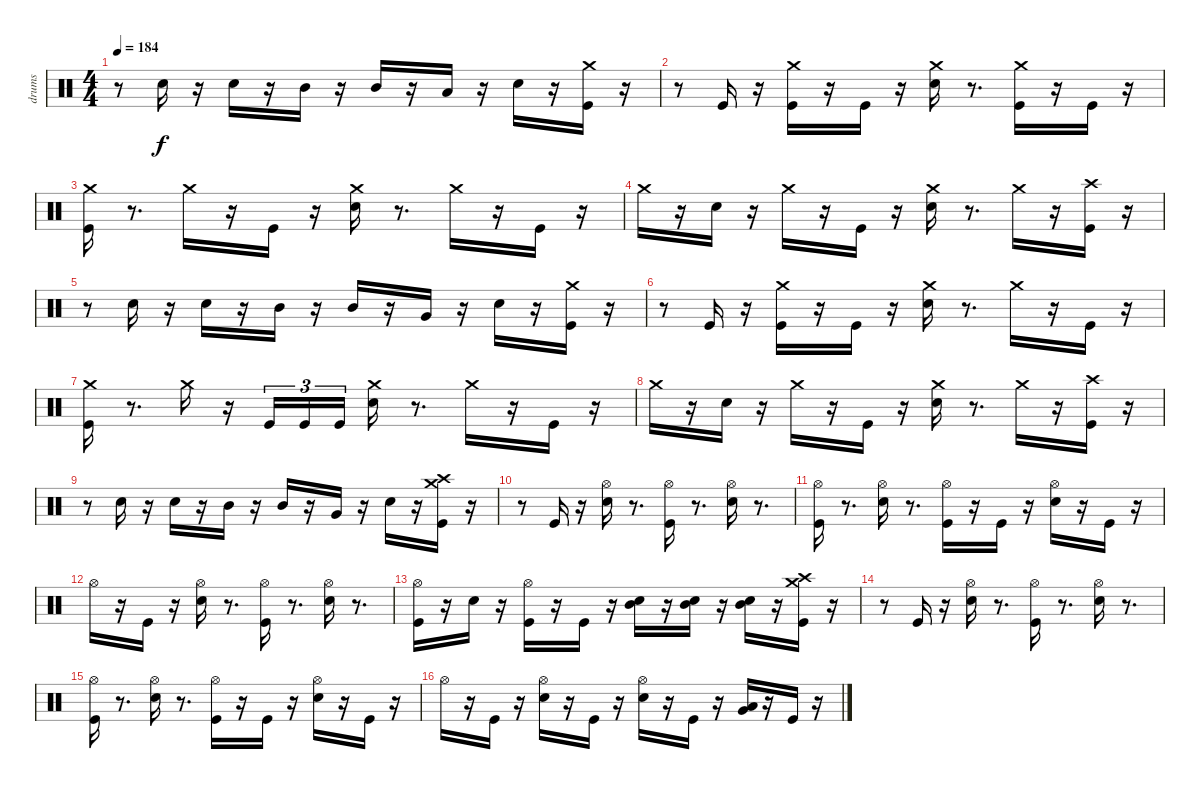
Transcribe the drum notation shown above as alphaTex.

\track ("drums" "drums") {instrument percussion}
\staff {score}
\articulation defaults
\ts (4 4)
\tempo 184
\clef neutral
\ks c
r.8{dy f} "Snare (hit) 2".16 r.16 "Snare (hit) 2".16 r.16 "Mid Tom (hit)".16 r.16 "Mid Tom (hit)".16 r.16 "Low Tom (hit)".16 r.16 "Snare (hit) 2".16 r.16 ("Kick (hit)" "Crash medium (hit)").16 r.16 |
r.8 "Kick (hit)".16 r.16 ("Kick (hit)" "Crash medium (hit)").16 r.16 "Kick (hit)".16 r.16 ("Snare (hit) 2" "Crash medium (hit)").16 r.8{d} ("Kick (hit)" "Crash medium (hit)").16 r.16 "Kick (hit)".16 r.16 |
("Kick (hit)" "Crash medium (hit)").16 r.8{d} "Crash medium (hit)".16 r.16 "Kick (hit)".16 r.16 ("Snare (hit) 2" "Crash medium (hit)").16 r.8{d} "Crash medium (hit)".16 r.16 "Kick (hit)".16 r.16 |
"Crash medium (hit)".16 r.16 "Snare (hit) 2".16 r.16 "Crash medium (hit)".16 r.16 "Kick (hit)".16 r.16 ("Snare (hit) 2" "Crash medium (hit)").16 r.8{d} "Crash medium (hit)".16 r.16 ("Kick (hit)" "Crash high (hit)").16 r.16 |
r.8 "Snare (hit) 2".16 r.16 "Snare (hit) 2".16 r.16 "Mid Tom (hit)".16 r.16 "Mid Tom (hit)".16 r.16 "Very Low Tom (hit)".16 r.16 "Snare (hit) 2".16 r.16 ("Kick (hit)" "Crash medium (hit)").16 r.16 |
r.8 "Kick (hit)".16 r.16 ("Kick (hit)" "Crash medium (hit)").16 r.16 "Kick (hit)".16 r.16 ("Snare (hit) 2" "Crash medium (hit)").16 r.8{d} "Crash medium (hit)".16 r.16 "Kick (hit)".16 r.16 |
("Kick (hit)" "Crash medium (hit)").16 r.8{d} "Crash medium (hit)".16 r.16 "Kick (hit)".16{tu (3 2)} "Kick (hit)".16{tu (3 2)} "Kick (hit)".16{tu (3 2)} ("Snare (hit) 2" "Crash medium (hit)").16 r.8{d} "Crash medium (hit)".16 r.16 "Kick (hit)".16 r.16 |
"Crash medium (hit)".16 r.16 "Snare (hit) 2".16 r.16 "Crash medium (hit)".16 r.16 "Kick (hit)".16 r.16 ("Snare (hit) 2" "Crash medium (hit)").16 r.8{d} "Crash medium (hit)".16 r.16 ("Kick (hit)" "Crash high (hit)").16 r.16 |
r.8 "Snare (hit) 2".16 r.16 "Snare (hit) 2".16 r.16 "Mid Tom (hit)".16 r.16 "Mid Tom (hit)".16 r.16 "Very Low Tom (hit)".16 r.16 "Snare (hit) 2".16 r.16 ("Kick (hit)" "Crash high (hit)" "Crash medium (hit)").16 r.16 |
r.8 "Kick (hit)".16 r.16 ("Snare (hit) 2" "Hi-Hat (open)").16 r.8{d} ("Kick (hit)" "Hi-Hat (open)").16 r.8{d} ("Snare (hit) 2" "Hi-Hat (open)").16 r.8{d} |
("Kick (hit)" "Hi-Hat (open)").16 r.8{d} ("Snare (hit) 2" "Hi-Hat (open)").16 r.8{d} ("Kick (hit)" "Hi-Hat (open)").16 r.16 "Kick (hit)".16 r.16 ("Snare (hit) 2" "Hi-Hat (open)").16 r.16 "Kick (hit)".16 r.16 |
"Hi-Hat (open)".16 r.16 "Kick (hit)".16 r.16 ("Snare (hit) 2" "Hi-Hat (open)").16 r.8{d} ("Kick (hit)" "Hi-Hat (open)").16 r.8{d} ("Snare (hit) 2" "Hi-Hat (open)").16 r.8{d} |
("Kick (hit)" "Hi-Hat (open)").16 r.16 "Snare (hit) 2".16 r.16 ("Kick (hit)" "Hi-Hat (open)").16 r.16 "Kick (hit)".16 r.16 ("Snare (hit) 2" "Mid Tom (hit)").16 r.16 ("Snare (hit) 2" "Mid Tom (hit)").16 r.16 ("Snare (hit) 2" "Mid Tom (hit)").16 r.16 ("Kick (hit)" "Crash high (hit)" "Crash medium (hit)").16 r.16 |
r.8 "Kick (hit)".16 r.16 ("Snare (hit) 2" "Hi-Hat (open)").16 r.8{d} ("Kick (hit)" "Hi-Hat (open)").16 r.8{d} ("Snare (hit) 2" "Hi-Hat (open)").16 r.8{d} |
("Kick (hit)" "Hi-Hat (open)").16 r.8{d} ("Snare (hit) 2" "Hi-Hat (open)").16 r.8{d} ("Kick (hit)" "Hi-Hat (open)").16 r.16 "Kick (hit)".16 r.16 ("Snare (hit) 2" "Hi-Hat (open)").16 r.16 "Kick (hit)".16 r.16 |
"Hi-Hat (open)".16 r.16 "Kick (hit)".16 r.16 ("Snare (hit) 2" "Hi-Hat (open)").16 r.16 "Kick (hit)".16 r.16 ("Snare (hit) 2" "Hi-Hat (open)").16 r.16 "Kick (hit)".16 r.16 ("Very Low Tom (hit)" "Low Tom (hit)").16 r.16 "Kick (hit)".16 r.16
